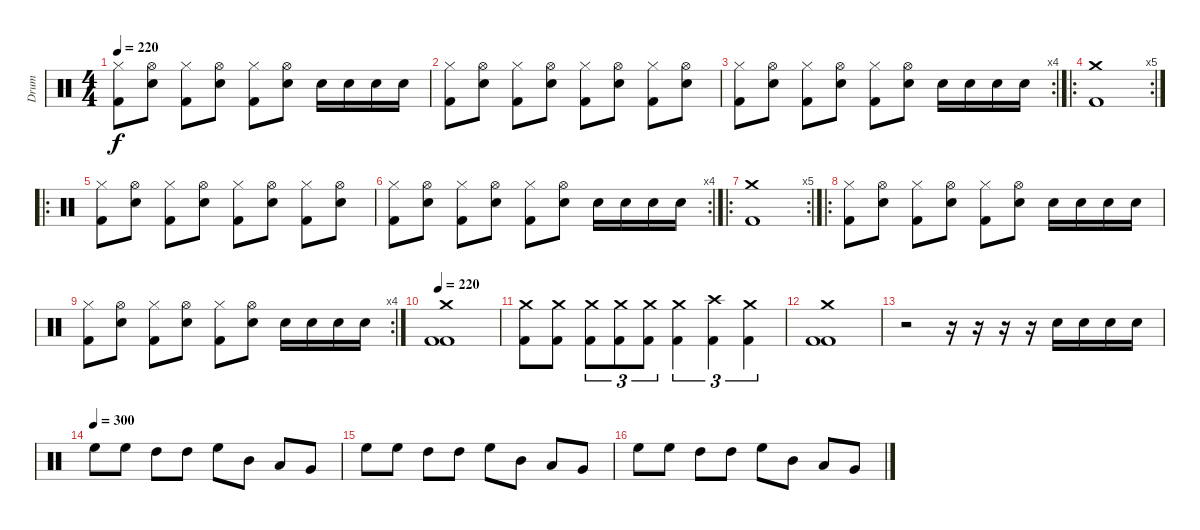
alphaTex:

\track ("Drum" "Drum") {instrument percussion}
\staff {score}
\articulation defaults
\ts (4 4)
\tempo 220
\clef neutral
\ks c
("Hi-Hat (closed)" "Kick (hit) 2").8{dy f} ("Hi-Hat (open)" "Snare (hit) 2").8 ("Hi-Hat (closed)" "Kick (hit) 2").8 ("Hi-Hat (open)" "Snare (hit) 2").8 ("Hi-Hat (closed)" "Kick (hit) 2").8 ("Hi-Hat (open)" "Snare (hit) 2").8 "Snare (hit) 2".16 "Snare (hit) 2".16 "Snare (hit) 2".16 "Snare (hit) 2".16 |
("Hi-Hat (closed)" "Kick (hit) 2").8 ("Hi-Hat (open)" "Snare (hit) 2").8 ("Hi-Hat (closed)" "Kick (hit) 2").8 ("Hi-Hat (open)" "Snare (hit) 2").8 ("Hi-Hat (closed)" "Kick (hit) 2").8 ("Hi-Hat (open)" "Snare (hit) 2").8 ("Hi-Hat (closed)" "Kick (hit) 2").8 ("Hi-Hat (open)" "Snare (hit) 2").8 |
\rc 4
("Hi-Hat (closed)" "Kick (hit) 2").8 ("Hi-Hat (open)" "Snare (hit) 2").8 ("Hi-Hat (closed)" "Kick (hit) 2").8 ("Hi-Hat (open)" "Snare (hit) 2").8 ("Hi-Hat (closed)" "Kick (hit) 2").8 ("Hi-Hat (open)" "Snare (hit) 2").8 "Snare (hit) 2".16 "Snare (hit) 2".16 "Snare (hit) 2".16 "Snare (hit) 2".16 |
\ro
\rc 5
("Crash medium (hit)" "Kick (hit) 2").1 |
\ro
("Hi-Hat (closed)" "Kick (hit) 2").8 ("Hi-Hat (open)" "Snare (hit) 2").8 ("Hi-Hat (closed)" "Kick (hit) 2").8 ("Hi-Hat (open)" "Snare (hit) 2").8 ("Hi-Hat (closed)" "Kick (hit) 2").8 ("Hi-Hat (open)" "Snare (hit) 2").8 ("Hi-Hat (closed)" "Kick (hit) 2").8 ("Hi-Hat (open)" "Snare (hit) 2").8 |
\rc 4
("Hi-Hat (closed)" "Kick (hit) 2").8 ("Hi-Hat (open)" "Snare (hit) 2").8 ("Hi-Hat (closed)" "Kick (hit) 2").8 ("Hi-Hat (open)" "Snare (hit) 2").8 ("Hi-Hat (closed)" "Kick (hit) 2").8 ("Hi-Hat (open)" "Snare (hit) 2").8 "Snare (hit) 2".16 "Snare (hit) 2".16 "Snare (hit) 2".16 "Snare (hit) 2".16 |
\ro
\rc 5
("Crash medium (hit)" "Kick (hit) 2").1 |
\ro
("Hi-Hat (closed)" "Kick (hit) 2").8 ("Hi-Hat (open)" "Snare (hit) 2").8 ("Hi-Hat (closed)" "Kick (hit) 2").8 ("Hi-Hat (open)" "Snare (hit) 2").8 ("Hi-Hat (closed)" "Kick (hit) 2").8 ("Hi-Hat (open)" "Snare (hit) 2").8 "Snare (hit) 2".16 "Snare (hit) 2".16 "Snare (hit) 2".16 "Snare (hit) 2".16 |
\rc 4
("Hi-Hat (closed)" "Kick (hit) 2").8 ("Hi-Hat (open)" "Snare (hit) 2").8 ("Hi-Hat (closed)" "Kick (hit) 2").8 ("Hi-Hat (open)" "Snare (hit) 2").8 ("Hi-Hat (closed)" "Kick (hit) 2").8 ("Hi-Hat (open)" "Snare (hit) 2").8 "Snare (hit) 2".16 "Snare (hit) 2".16 "Snare (hit) 2".16 "Snare (hit) 2".16 |
\tempo 220
("Crash medium (hit)" "Kick (hit) 2" "Kick (hit) 2").1 |
("Crash medium (hit)" "Kick (hit) 2").8 ("Crash medium (hit)" "Kick (hit) 2").8 ("Crash medium (hit)" "Kick (hit) 2").8{tu (3 2)} ("Crash medium (hit)" "Kick (hit) 2").8{tu (3 2)} ("Crash medium (hit)" "Kick (hit) 2").8{tu (3 2)} ("Crash medium (hit)" "Kick (hit) 2").4{tu (3 2)} ("Crash high (hit)" "Kick (hit) 2").4{tu (3 2)} ("Crash medium (hit)" "Kick (hit) 2").4{tu (3 2)} |
("Crash medium (hit)" "Kick (hit) 2" "Kick (hit) 2").1 |
r.2 r.16 r.16 r.16 r.16 "Snare (hit) 2".16 "Snare (hit) 2".16 "Snare (hit) 2".16 "Snare (hit) 2".16 |
\tempo (300)
"High Floor Tom (hit)".8 "High Floor Tom (hit)".8 "High Tom (hit)".8 "High Tom (hit)".8 "High Floor Tom (hit)".8 "Mid Tom (hit)".8 "Low Tom (hit)".8 "Very Low Tom (hit)".8 |
"High Floor Tom (hit)".8 "High Floor Tom (hit)".8 "High Tom (hit)".8 "High Tom (hit)".8 "High Floor Tom (hit)".8 "Mid Tom (hit)".8 "Low Tom (hit)".8 "Very Low Tom (hit)".8 |
"High Floor Tom (hit)".8 "High Floor Tom (hit)".8 "High Tom (hit)".8 "High Tom (hit)".8 "High Floor Tom (hit)".8 "Mid Tom (hit)".8 "Low Tom (hit)".8 "Very Low Tom (hit)".8
